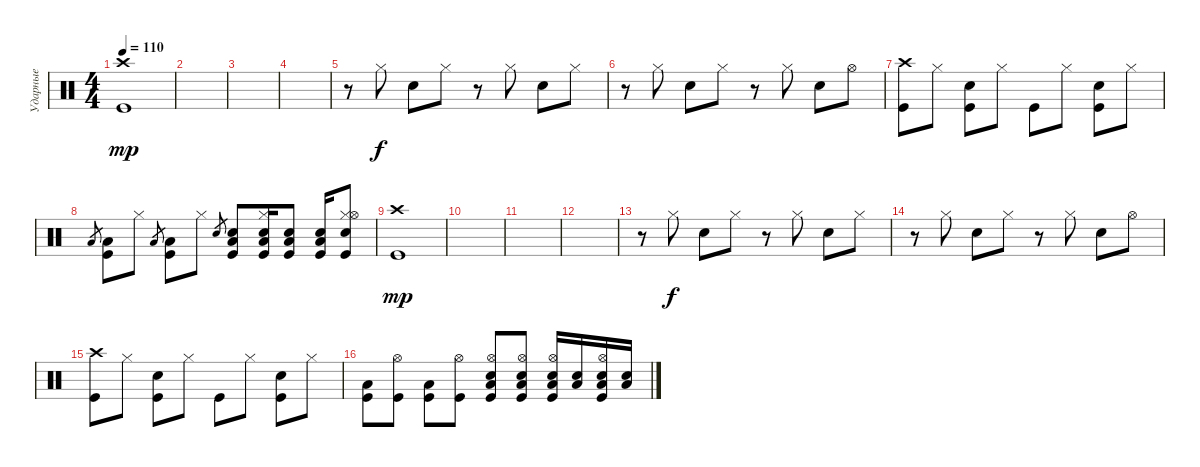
\track ("Ударные" "Ударные") {instrument percussion}
\staff
\articulation defaults
\ts (4 4)
\tempo 110
\clef neutral
\ks c
("Crash high (hit)" "Kick (hit)").1{dy mp} |
|
|
|
r.8 "Hi-Hat (closed)".8{dy f} "Hand Clap (hit)".8 "Hi-Hat (closed)".8 r.8 "Hi-Hat (closed)".8 "Hand Clap (hit)".8 "Hi-Hat (closed)".8 |
r.8 "Hi-Hat (closed)".8 "Hand Clap (hit)".8 "Hi-Hat (closed)".8 r.8 "Hi-Hat (closed)".8 "Hand Clap (hit)".8 "Hi-Hat (open)".8 |
("Crash high (hit)" "Kick (hit)").8 "Hi-Hat (closed)".8 ("Hand Clap (hit)" "Kick (hit)").8 "Hi-Hat (closed)".8 "Kick (hit)".8 "Hi-Hat (closed)".8 ("Hand Clap (hit)" "Kick (hit)").8 "Hi-Hat (closed)".8 |
"Low Floor Tom (hit)".8{gr} ("Low Floor Tom (hit)" "Kick (hit)").8 "Hi-Hat (closed)".8 "Low Floor Tom (hit)".8{gr} ("Low Floor Tom (hit)" "Kick (hit)").8 "Hi-Hat (closed)".8 "Snare (hit) 2".8{gr} ("Low Floor Tom (hit)" "Snare (hit) 2" "Kick (hit)").8 ("Hi-Hat (closed)" "Low Floor Tom (hit)" "Snare (hit) 2" "Kick (hit)").16 ("Low Floor Tom (hit)" "Snare (hit) 2" "Kick (hit)").8 ("Low Floor Tom (hit)" "Snare (hit) 2" "Kick (hit)").16 ("Hi-Hat (closed)" "Hi-Hat (open)" "Snare (hit) 2" "Kick (hit)").8 |
("Crash high (hit)" "Kick (hit)").1{dy mp} |
|
|
|
r.8 "Hi-Hat (closed)".8{dy f} "Hand Clap (hit)".8 "Hi-Hat (closed)".8 r.8 "Hi-Hat (closed)".8 "Hand Clap (hit)".8 "Hi-Hat (closed)".8 |
r.8 "Hi-Hat (closed)".8 "Hand Clap (hit)".8 "Hi-Hat (closed)".8 r.8 "Hi-Hat (closed)".8 "Hand Clap (hit)".8 "Hi-Hat (open)".8 |
("Crash high (hit)" "Kick (hit)").8 "Hi-Hat (closed)".8 ("Hand Clap (hit)" "Kick (hit)").8 "Hi-Hat (closed)".8 "Kick (hit)".8 "Hi-Hat (closed)".8 ("Hand Clap (hit)" "Kick (hit)").8 "Hi-Hat (closed)".8 |
("Low Floor Tom (hit)" "Kick (hit)").8 ("Hi-Hat (open)" "Kick (hit)").8 ("Low Floor Tom (hit)" "Kick (hit)").8 ("Hi-Hat (open)" "Kick (hit)").8 ("Hi-Hat (open)" "Low Floor Tom (hit)" "Snare (hit) 2" "Kick (hit)").8 ("Hi-Hat (open)" "Low Floor Tom (hit)" "Snare (hit) 2" "Kick (hit)").8 ("Hi-Hat (open)" "Low Floor Tom (hit)" "Snare (hit) 2" "Kick (hit)").16 ("Low Floor Tom (hit)" "Snare (hit) 2").16 ("Hi-Hat (open)" "Low Floor Tom (hit)" "Snare (hit) 2" "Kick (hit)").16 ("Low Floor Tom (hit)" "Snare (hit) 2").16
